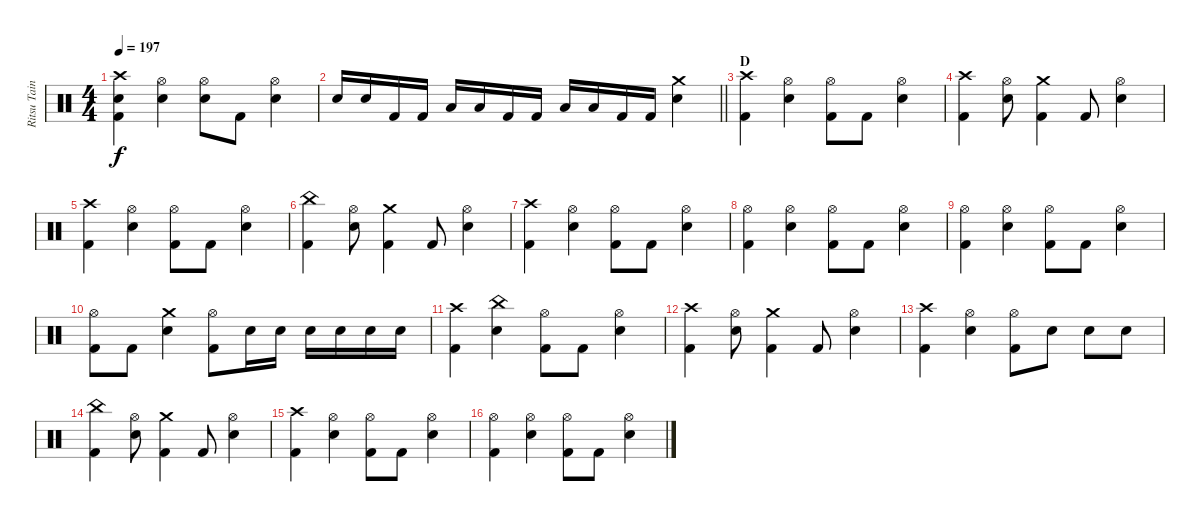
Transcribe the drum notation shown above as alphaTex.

\track ("Ritsu Tainaka" "Ritsu Tain") {instrument percussion}
\staff {score}
\articulation defaults
\ts (4 4)
\tempo 197
\clef neutral
\ks c
("Crash high (hit)" "Electric Snare (hit)" "Kick (hit) 2").4{dy f} ("Hi-Hat (open)" "Electric Snare (hit)").4 ("Hi-Hat (open)" "Electric Snare (hit)").8 "Kick (hit) 2".8 ("Hi-Hat (open)" "Electric Snare (hit)").4 |
\barLineRight lightlight "Electric Snare (hit)".16 "Electric Snare (hit)".16 "Kick (hit) 2".16 "Kick (hit) 2".16 "Low Tom (hit)".16 "Low Tom (hit)".16 "Kick (hit) 2".16 "Kick (hit) 2".16 "Low Floor Tom (hit)".16 "Low Floor Tom (hit)".16 "Kick (hit) 2".16 "Kick (hit) 2".16
("Crash medium (hit)" "Electric Snare (hit)").4 |
\section ("" "D")
("Crash high (hit)" "Kick (hit) 2").4 ("Hi-Hat (open)" "Electric Snare (hit)").4 ("Hi-Hat (open)" "Kick (hit) 2").8 "Kick (hit) 2".8 ("Hi-Hat (open)" "Electric Snare (hit)").4 |
("Crash high (hit)" "Kick (hit) 2").4 ("Hi-Hat (open)" "Electric Snare (hit)").8 ("Crash medium (hit)" "Kick (hit) 2").4 "Kick (hit) 2".8 ("Hi-Hat (open)" "Electric Snare (hit)").4 |
("Crash high (hit)" "Kick (hit) 2").4 ("Hi-Hat (open)" "Electric Snare (hit)").4 ("Hi-Hat (open)" "Kick (hit) 2").8 "Kick (hit) 2".8 ("Hi-Hat (open)" "Electric Snare (hit)").4 |
("China (hit)" "Kick (hit) 2").4 ("Hi-Hat (open)" "Electric Snare (hit)").8 ("Crash medium (hit)" "Kick (hit) 2").4 "Kick (hit) 2".8 ("Hi-Hat (open)" "Electric Snare (hit)").4 |
("Crash high (hit)" "Kick (hit) 2").4 ("Hi-Hat (open)" "Electric Snare (hit)").4 ("Hi-Hat (open)" "Kick (hit) 2").8 "Kick (hit) 2".8 ("Hi-Hat (open)" "Electric Snare (hit)").4 |
("Hi-Hat (open)" "Kick (hit) 2").4 ("Hi-Hat (open)" "Electric Snare (hit)").4 ("Hi-Hat (open)" "Kick (hit) 2").8 "Kick (hit) 2".8 ("Hi-Hat (open)" "Electric Snare (hit)").4 |
("Hi-Hat (open)" "Kick (hit) 2").4 ("Hi-Hat (open)" "Electric Snare (hit)").4 ("Hi-Hat (open)" "Kick (hit) 2").8 "Kick (hit) 2".8 ("Hi-Hat (open)" "Electric Snare (hit)").4 |
("Hi-Hat (open)" "Kick (hit) 2").8 "Kick (hit) 2".8 ("Crash medium (hit)" "Electric Snare (hit)").4 ("Hi-Hat (open)" "Kick (hit) 2").8 "Electric Snare (hit)".16 "Electric Snare (hit)".16 "Electric Snare (hit)".16 "Electric Snare (hit)".16 "Electric Snare (hit)".16 "Electric Snare (hit)".16 |
("Crash high (hit)" "Kick (hit) 2").4 ("China (hit)" "Electric Snare (hit)").4 ("Hi-Hat (open)" "Kick (hit) 2").8 "Kick (hit) 2".8 ("Hi-Hat (open)" "Electric Snare (hit)").4 |
("Crash high (hit)" "Kick (hit) 2").4 ("Hi-Hat (open)" "Electric Snare (hit)").8 ("Crash medium (hit)" "Kick (hit) 2").4 "Kick (hit) 2".8 ("Hi-Hat (open)" "Electric Snare (hit)").4 |
("Crash high (hit)" "Kick (hit) 2").4 ("Hi-Hat (open)" "Electric Snare (hit)").4 ("Hi-Hat (open)" "Kick (hit) 2").8 "Electric Snare (hit)".8 "Electric Snare (hit)".8 "Electric Snare (hit)".8 |
("China (hit)" "Kick (hit) 2").4 ("Hi-Hat (open)" "Electric Snare (hit)").8 ("Crash medium (hit)" "Kick (hit) 2").4 "Kick (hit) 2".8 ("Hi-Hat (open)" "Electric Snare (hit)").4 |
("Crash high (hit)" "Kick (hit) 2").4 ("Hi-Hat (open)" "Electric Snare (hit)").4 ("Hi-Hat (open)" "Kick (hit) 2").8 "Kick (hit) 2".8 ("Hi-Hat (open)" "Electric Snare (hit)").4 |
("Hi-Hat (open)" "Kick (hit) 2").4 ("Hi-Hat (open)" "Electric Snare (hit)").4 ("Hi-Hat (open)" "Kick (hit) 2").8 "Kick (hit) 2".8 ("Hi-Hat (open)" "Electric Snare (hit)").4
